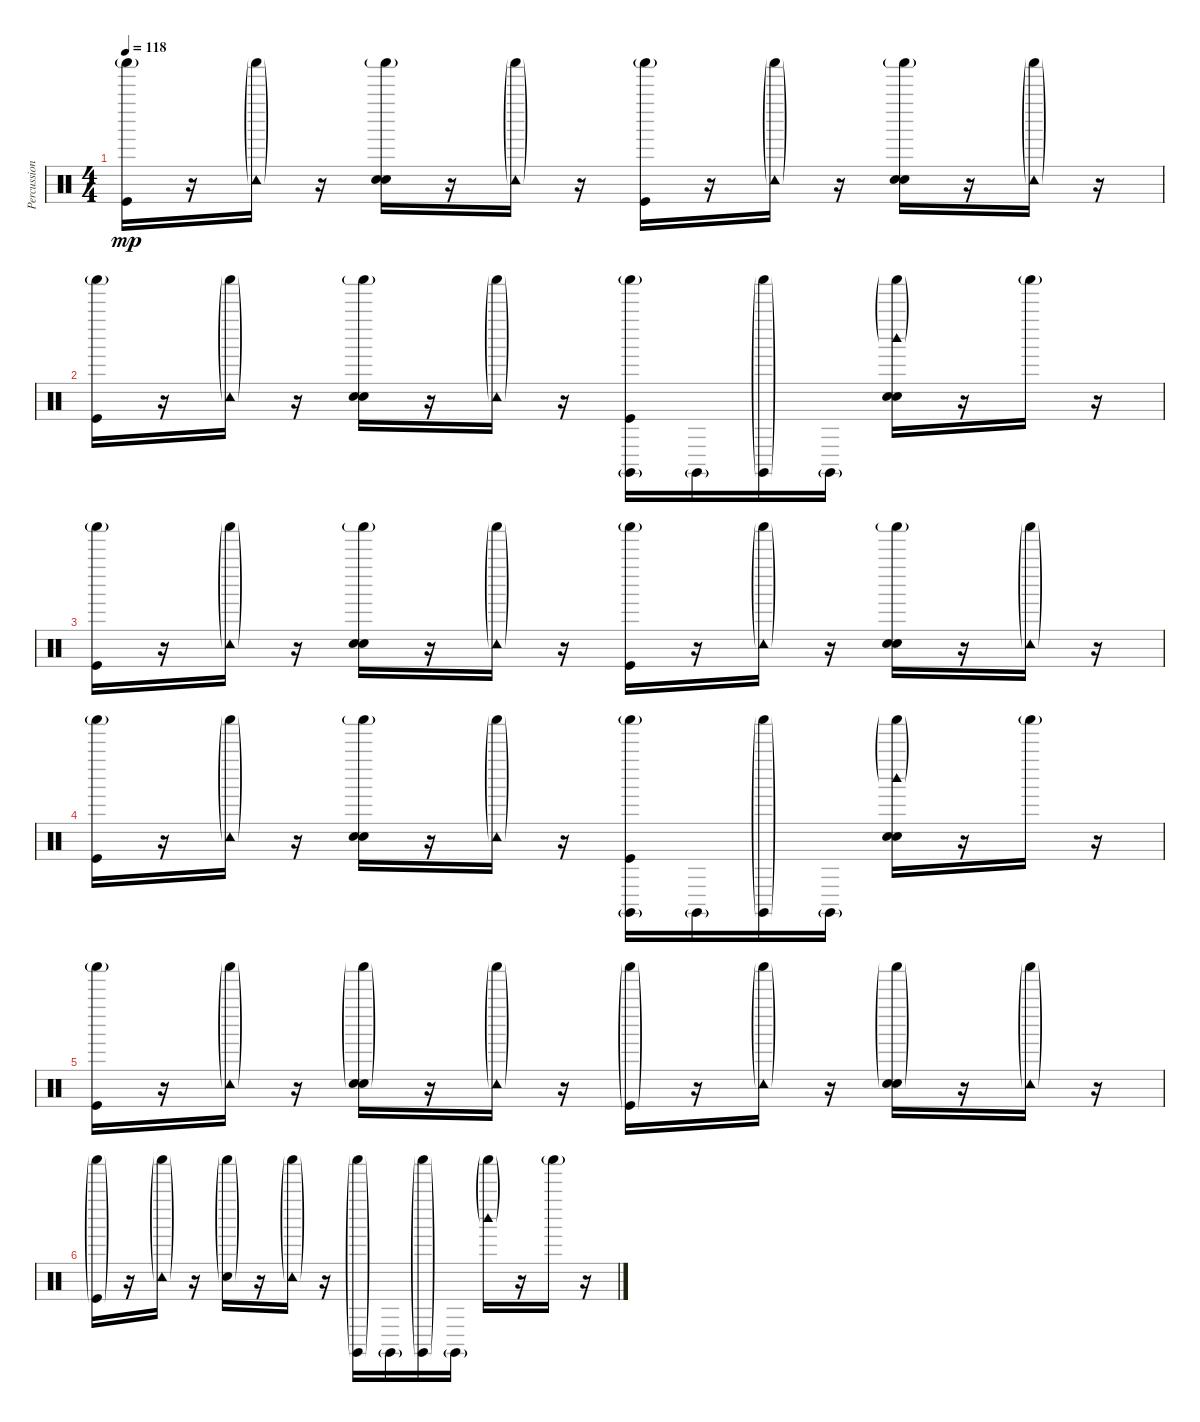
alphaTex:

\track ("Percussion" "Percussion") {instrument percussion}
\staff {score}
\articulation defaults
\ts (4 4)
\tempo 118
\clef neutral
\ks c
("Shaker (hit)"{g} "Kick (hit)").16{dy mp} r.16 ("Shaker (hit)"{g} "Tambourine (hit)"{g}).16 r.16 ("Shaker (hit)"{g} "Hand Clap (hit)" "Snare (hit) 2").16 r.16 ("Shaker (hit)"{g} "Tambourine (hit)"{g}).16 r.16 ("Shaker (hit)"{g} "Kick (hit)").16 r.16 ("Shaker (hit)"{g} "Tambourine (hit)"{g}).16 r.16 ("Shaker (hit)"{g} "Hand Clap (hit)" "Snare (hit) 2").16 r.16 ("Shaker (hit)"{g} "Tambourine (hit)"{g}).16 r.16 |
("Shaker (hit)"{g} "Kick (hit)").16 r.16 ("Shaker (hit)"{g} "Tambourine (hit)"{g}).16 r.16 ("Shaker (hit)"{g} "Hand Clap (hit)" "Snare (hit) 2").16 r.16 ("Shaker (hit)"{g} "Tambourine (hit)"{g}).16 r.16 ("Shaker (hit)"{g} "Claves (hit)"{g} "Kick (hit)").16 "Claves (hit)"{g}.16 ("Shaker (hit)"{g} "Claves (hit)"{g}).16 "Claves (hit)"{g}.16 ("Shaker (hit)"{g} "Woodblock high (hit)"{g} "Hand Clap (hit)" "Snare (hit) 2").16 r.16 "Shaker (hit)"{g}.16 r.16 |
("Shaker (hit)"{g} "Kick (hit)").16 r.16 ("Shaker (hit)"{g} "Tambourine (hit)"{g}).16 r.16 ("Shaker (hit)"{g} "Hand Clap (hit)" "Snare (hit) 2").16 r.16 ("Shaker (hit)"{g} "Tambourine (hit)"{g}).16 r.16 ("Shaker (hit)"{g} "Kick (hit)").16 r.16 ("Shaker (hit)"{g} "Tambourine (hit)"{g}).16 r.16 ("Shaker (hit)"{g} "Hand Clap (hit)" "Snare (hit) 2").16 r.16 ("Shaker (hit)"{g} "Tambourine (hit)"{g}).16 r.16 |
("Shaker (hit)"{g} "Kick (hit)").16 r.16 ("Shaker (hit)"{g} "Tambourine (hit)"{g}).16 r.16 ("Shaker (hit)"{g} "Hand Clap (hit)" "Snare (hit) 2").16 r.16 ("Shaker (hit)"{g} "Tambourine (hit)"{g}).16 r.16 ("Shaker (hit)"{g} "Claves (hit)"{g} "Kick (hit)").16 "Claves (hit)"{g}.16 ("Shaker (hit)"{g} "Claves (hit)"{g}).16 "Claves (hit)"{g}.16 ("Shaker (hit)"{g} "Woodblock high (hit)"{g} "Hand Clap (hit)" "Snare (hit) 2").16 r.16 "Shaker (hit)"{g}.16 r.16 |
("Shaker (hit)"{g} "Kick (hit)").16 r.16 ("Shaker (hit)"{g} "Tambourine (hit)"{g}).16 r.16 ("Shaker (hit)"{g} "Hand Clap (hit)"{g} "Snare (hit) 2"{g}).16 r.16 ("Shaker (hit)"{g} "Tambourine (hit)"{g}).16 r.16 ("Shaker (hit)"{g} "Kick (hit)"{g}).16 r.16 ("Shaker (hit)"{g} "Tambourine (hit)"{g}).16 r.16 ("Shaker (hit)"{g} "Hand Clap (hit)"{g} "Snare (hit) 2"{g}).16 r.16 ("Shaker (hit)"{g} "Tambourine (hit)"{g}).16 r.16 |
("Shaker (hit)"{g} "Kick (hit)"{g}).16 r.16 ("Shaker (hit)"{g} "Tambourine (hit)"{g}).16 r.16 ("Shaker (hit)"{g} "Snare (hit) 2"{g}).16 r.16 ("Shaker (hit)"{g} "Tambourine (hit)"{g}).16 r.16 ("Shaker (hit)"{g} "Claves (hit)"{g}).16 "Claves (hit)"{g}.16 ("Shaker (hit)"{g} "Claves (hit)"{g}).16 "Claves (hit)"{g}.16 ("Shaker (hit)"{g} "Woodblock high (hit)"{g}).16 r.16 "Shaker (hit)"{g}.16 r.16
